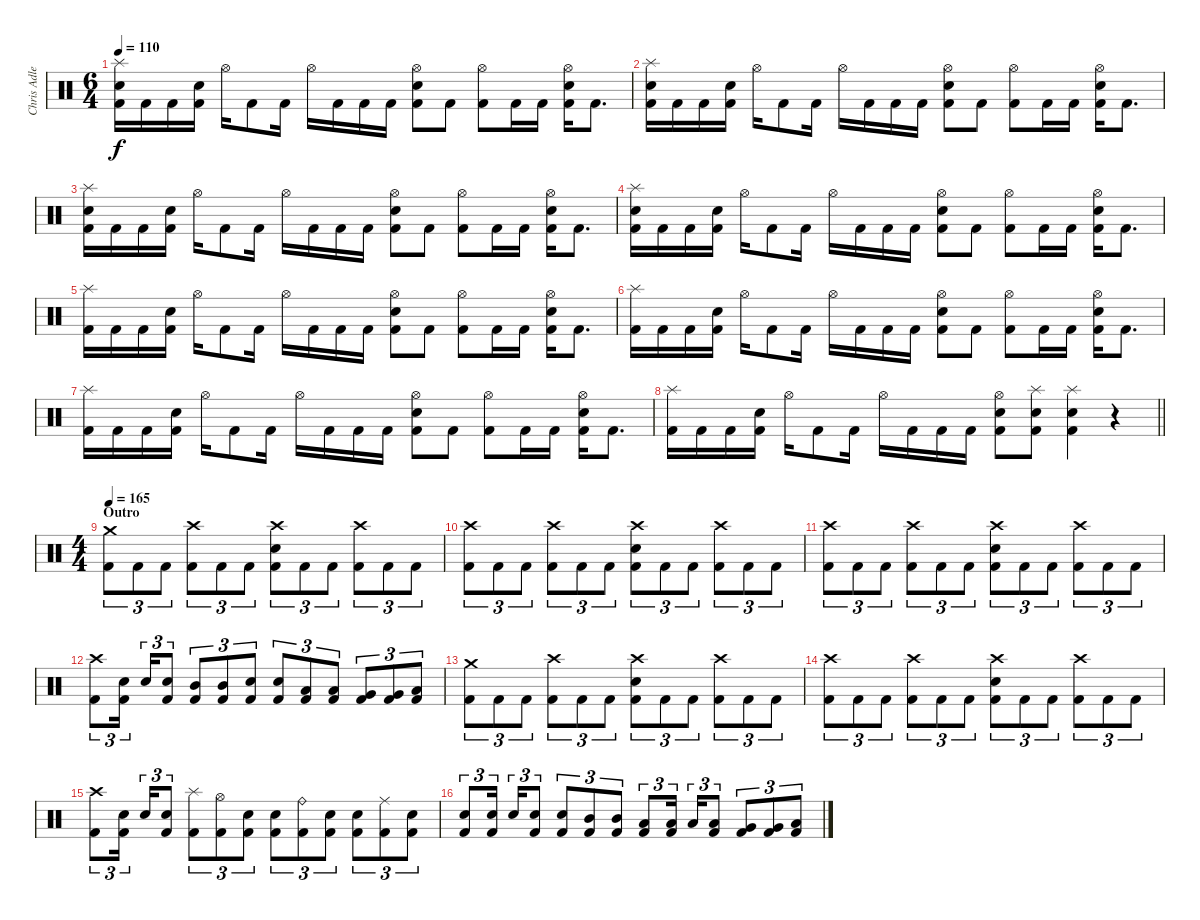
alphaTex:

\track ("Chris Adler" "Chris Adle") {instrument percussion}
\staff {score}
\articulation defaults
\ts (6 4)
\tempo 110
\clef neutral
\ks c
("Splash (hit)" "Electric Snare (hit)" "Kick (hit) 2").16{dy f} "Kick (hit) 2".16 "Kick (hit) 2".16 ("Electric Snare (hit)" "Kick (hit) 2").16 "Hi-Hat (open)".16 "Kick (hit) 2".8 "Kick (hit) 2".16 "Hi-Hat (open)".16 "Kick (hit) 2".16 "Kick (hit) 2".16 "Kick (hit) 2".16 ("Hi-Hat (open)" "Electric Snare (hit)" "Kick (hit) 2").8 "Kick (hit) 2".8 ("Hi-Hat (open)" "Kick (hit) 2").8 "Kick (hit) 2".16 "Kick (hit) 2".16 ("Hi-Hat (open)" "Electric Snare (hit)" "Kick (hit) 2").16 "Kick (hit) 2".8{d} |
("Splash (hit)" "Electric Snare (hit)" "Kick (hit) 2").16 "Kick (hit) 2".16 "Kick (hit) 2".16 ("Electric Snare (hit)" "Kick (hit) 2").16 "Hi-Hat (open)".16 "Kick (hit) 2".8 "Kick (hit) 2".16 "Hi-Hat (open)".16 "Kick (hit) 2".16 "Kick (hit) 2".16 "Kick (hit) 2".16 ("Hi-Hat (open)" "Electric Snare (hit)" "Kick (hit) 2").8 "Kick (hit) 2".8 ("Hi-Hat (open)" "Kick (hit) 2").8 "Kick (hit) 2".16 "Kick (hit) 2".16 ("Hi-Hat (open)" "Electric Snare (hit)" "Kick (hit) 2").16 "Kick (hit) 2".8{d} |
("Splash (hit)" "Electric Snare (hit)" "Kick (hit) 2").16 "Kick (hit) 2".16 "Kick (hit) 2".16 ("Electric Snare (hit)" "Kick (hit) 2").16 "Hi-Hat (open)".16 "Kick (hit) 2".8 "Kick (hit) 2".16 "Hi-Hat (open)".16 "Kick (hit) 2".16 "Kick (hit) 2".16 "Kick (hit) 2".16 ("Hi-Hat (open)" "Electric Snare (hit)" "Kick (hit) 2").8 "Kick (hit) 2".8 ("Hi-Hat (open)" "Kick (hit) 2").8 "Kick (hit) 2".16 "Kick (hit) 2".16 ("Hi-Hat (open)" "Electric Snare (hit)" "Kick (hit) 2").16 "Kick (hit) 2".8{d} |
("Splash (hit)" "Electric Snare (hit)" "Kick (hit) 2").16 "Kick (hit) 2".16 "Kick (hit) 2".16 ("Electric Snare (hit)" "Kick (hit) 2").16 "Hi-Hat (open)".16 "Kick (hit) 2".8 "Kick (hit) 2".16 "Hi-Hat (open)".16 "Kick (hit) 2".16 "Kick (hit) 2".16 "Kick (hit) 2".16 ("Hi-Hat (open)" "Electric Snare (hit)" "Kick (hit) 2").8 "Kick (hit) 2".8 ("Hi-Hat (open)" "Kick (hit) 2").8 "Kick (hit) 2".16 "Kick (hit) 2".16 ("Hi-Hat (open)" "Electric Snare (hit)" "Kick (hit) 2").16 "Kick (hit) 2".8{d} |
("Splash (hit)" "Kick (hit) 2").16 "Kick (hit) 2".16 "Kick (hit) 2".16 ("Electric Snare (hit)" "Kick (hit) 2").16 "Hi-Hat (open)".16 "Kick (hit) 2".8 "Kick (hit) 2".16 "Hi-Hat (open)".16 "Kick (hit) 2".16 "Kick (hit) 2".16 "Kick (hit) 2".16 ("Hi-Hat (open)" "Electric Snare (hit)" "Kick (hit) 2").8 "Kick (hit) 2".8 ("Hi-Hat (open)" "Kick (hit) 2").8 "Kick (hit) 2".16 "Kick (hit) 2".16 ("Hi-Hat (open)" "Electric Snare (hit)" "Kick (hit) 2").16 "Kick (hit) 2".8{d} |
("Splash (hit)" "Kick (hit) 2").16 "Kick (hit) 2".16 "Kick (hit) 2".16 ("Electric Snare (hit)" "Kick (hit) 2").16 "Hi-Hat (open)".16 "Kick (hit) 2".8 "Kick (hit) 2".16 "Hi-Hat (open)".16 "Kick (hit) 2".16 "Kick (hit) 2".16 "Kick (hit) 2".16 ("Hi-Hat (open)" "Electric Snare (hit)" "Kick (hit) 2").8 "Kick (hit) 2".8 ("Hi-Hat (open)" "Kick (hit) 2").8 "Kick (hit) 2".16 "Kick (hit) 2".16 ("Hi-Hat (open)" "Electric Snare (hit)" "Kick (hit) 2").16 "Kick (hit) 2".8{d} |
("Splash (hit)" "Kick (hit) 2").16 "Kick (hit) 2".16 "Kick (hit) 2".16 ("Electric Snare (hit)" "Kick (hit) 2").16 "Hi-Hat (open)".16 "Kick (hit) 2".8 "Kick (hit) 2".16 "Hi-Hat (open)".16 "Kick (hit) 2".16 "Kick (hit) 2".16 "Kick (hit) 2".16 ("Hi-Hat (open)" "Electric Snare (hit)" "Kick (hit) 2").8 "Kick (hit) 2".8 ("Hi-Hat (open)" "Kick (hit) 2").8 "Kick (hit) 2".16 "Kick (hit) 2".16 ("Hi-Hat (open)" "Electric Snare (hit)" "Kick (hit) 2").16 "Kick (hit) 2".8{d} |
\barLineRight lightlight
("Splash (hit)" "Kick (hit) 2").16 "Kick (hit) 2".16 "Kick (hit) 2".16 ("Electric Snare (hit)" "Kick (hit) 2").16 "Hi-Hat (open)".16 "Kick (hit) 2".8 "Kick (hit) 2".16 "Hi-Hat (open)".16 "Kick (hit) 2".16 "Kick (hit) 2".16 "Kick (hit) 2".16 ("Hi-Hat (open)" "Electric Snare (hit)" "Kick (hit) 2").8 ("Splash (hit)" "Electric Snare (hit)" "Kick (hit) 2").8 ("Splash (hit)" "Electric Snare (hit)" "Kick (hit) 2").4 r.4 |
\ts (4 4)
\section ("" "Outro")
\tempo 165
("Crash medium (hit)" "Kick (hit) 2").8{tu (3 2)} "Kick (hit) 2".8{tu (3 2)} "Kick (hit) 2".8{tu (3 2)} ("Crash high (hit)" "Kick (hit) 2").8{tu (3 2)} "Kick (hit) 2".8{tu (3 2)} "Kick (hit) 2".8{tu (3 2)} ("Crash high (hit)" "Electric Snare (hit)" "Kick (hit) 2").8{tu (3 2)} "Kick (hit) 2".8{tu (3 2)} "Kick (hit) 2".8{tu (3 2)} ("Crash high (hit)" "Kick (hit) 2").8{tu (3 2)} "Kick (hit) 2".8{tu (3 2)} "Kick (hit) 2".8{tu (3 2)} |
("Crash high (hit)" "Kick (hit) 2").8{tu (3 2)} "Kick (hit) 2".8{tu (3 2)} "Kick (hit) 2".8{tu (3 2)} ("Crash high (hit)" "Kick (hit) 2").8{tu (3 2)} "Kick (hit) 2".8{tu (3 2)} "Kick (hit) 2".8{tu (3 2)} ("Crash high (hit)" "Electric Snare (hit)" "Kick (hit) 2").8{tu (3 2)} "Kick (hit) 2".8{tu (3 2)} "Kick (hit) 2".8{tu (3 2)} ("Crash high (hit)" "Kick (hit) 2").8{tu (3 2)} "Kick (hit) 2".8{tu (3 2)} "Kick (hit) 2".8{tu (3 2)} |
("Crash high (hit)" "Kick (hit) 2").8{tu (3 2)} "Kick (hit) 2".8{tu (3 2)} "Kick (hit) 2".8{tu (3 2)} ("Crash high (hit)" "Kick (hit) 2").8{tu (3 2)} "Kick (hit) 2".8{tu (3 2)} "Kick (hit) 2".8{tu (3 2)} ("Crash high (hit)" "Electric Snare (hit)" "Kick (hit) 2").8{tu (3 2)} "Kick (hit) 2".8{tu (3 2)} "Kick (hit) 2".8{tu (3 2)} ("Crash high (hit)" "Kick (hit) 2").8{tu (3 2)} "Kick (hit) 2".8{tu (3 2)} "Kick (hit) 2".8{tu (3 2)} |
("Crash high (hit)" "Kick (hit) 2").8{tu (3 2)} ("Electric Snare (hit)" "Kick (hit) 2").16{tu (3 2)} "Electric Snare (hit)".16{tu (3 2)} ("Electric Snare (hit)" "Kick (hit) 2").8{tu (3 2)} ("Mid Tom (hit)" "Kick (hit) 2").8{tu (3 2)} ("Mid Tom (hit)" "Kick (hit) 2").8{tu (3 2)} ("Electric Snare (hit)" "Kick (hit) 2").8{tu (3 2)} ("Electric Snare (hit)" "Kick (hit) 2").8{tu (3 2)} ("Low Tom (hit)" "Kick (hit) 2").8{tu (3 2)} ("Low Tom (hit)" "Kick (hit) 2").8{tu (3 2)} ("Very Low Tom (hit)" "Kick (hit) 2").8{tu (3 2)} ("Very Low Tom (hit)" "Kick (hit) 2").8{tu (3 2)} ("Low Floor Tom (hit)" "Kick (hit) 2").8{tu (3 2)} |
("Crash medium (hit)" "Kick (hit) 2").8{tu (3 2)} "Kick (hit) 2".8{tu (3 2)} "Kick (hit) 2".8{tu (3 2)} ("Crash high (hit)" "Kick (hit) 2").8{tu (3 2)} "Kick (hit) 2".8{tu (3 2)} "Kick (hit) 2".8{tu (3 2)} ("Crash high (hit)" "Electric Snare (hit)" "Kick (hit) 2").8{tu (3 2)} "Kick (hit) 2".8{tu (3 2)} "Kick (hit) 2".8{tu (3 2)} ("Crash high (hit)" "Kick (hit) 2").8{tu (3 2)} "Kick (hit) 2".8{tu (3 2)} "Kick (hit) 2".8{tu (3 2)} |
("Crash high (hit)" "Kick (hit) 2").8{tu (3 2)} "Kick (hit) 2".8{tu (3 2)} "Kick (hit) 2".8{tu (3 2)} ("Crash high (hit)" "Kick (hit) 2").8{tu (3 2)} "Kick (hit) 2".8{tu (3 2)} "Kick (hit) 2".8{tu (3 2)} ("Crash high (hit)" "Electric Snare (hit)" "Kick (hit) 2").8{tu (3 2)} "Kick (hit) 2".8{tu (3 2)} "Kick (hit) 2".8{tu (3 2)} ("Crash high (hit)" "Kick (hit) 2").8{tu (3 2)} "Kick (hit) 2".8{tu (3 2)} "Kick (hit) 2".8{tu (3 2)} |
("Crash high (hit)" "Kick (hit) 2").8{tu (3 2)} ("Electric Snare (hit)" "Kick (hit) 2").16{tu (3 2)} "Electric Snare (hit)".16{tu (3 2)} ("Electric Snare (hit)" "Kick (hit) 2").8{tu (3 2)} ("Splash (hit)" "Kick (hit) 2").8{tu (3 2)} ("Hi-Hat (open)" "Kick (hit) 2").8{tu (3 2)} ("Electric Snare (hit)" "Kick (hit) 2").8{tu (3 2)} ("Electric Snare (hit)" "Kick (hit) 2").8{tu (3 2)} ("Ride (bell)" "Kick (hit) 2").8{tu (3 2)} ("Electric Snare (hit)" "Kick (hit) 2").8{tu (3 2)} ("Electric Snare (hit)" "Kick (hit) 2").8{tu (3 2)} ("Ride (middle)" "Kick (hit) 2").8{tu (3 2)} ("Electric Snare (hit)" "Kick (hit) 2").8{tu (3 2)} |
("Electric Snare (hit)" "Kick (hit) 2").8{tu (3 2)} ("Electric Snare (hit)" "Kick (hit) 2").16{tu (3 2)} "Electric Snare (hit)".16{tu (3 2)} ("Electric Snare (hit)" "Kick (hit) 2").8{tu (3 2)} ("Electric Snare (hit)" "Kick (hit) 2").8{tu (3 2)} ("Mid Tom (hit)" "Kick (hit) 2").8{tu (3 2)} ("Mid Tom (hit)" "Kick (hit) 2").8{tu (3 2)} ("Low Tom (hit)" "Kick (hit) 2").8{tu (3 2)} ("Low Tom (hit)" "Kick (hit) 2").16{tu (3 2)} "Low Tom (hit)".16{tu (3 2)} ("Low Tom (hit)" "Kick (hit) 2").8{tu (3 2)} ("Very Low Tom (hit)" "Kick (hit) 2").8{tu (3 2)} ("Very Low Tom (hit)" "Kick (hit) 2").8{tu (3 2)} ("Low Floor Tom (hit)" "Kick (hit) 2").8{tu (3 2)}
